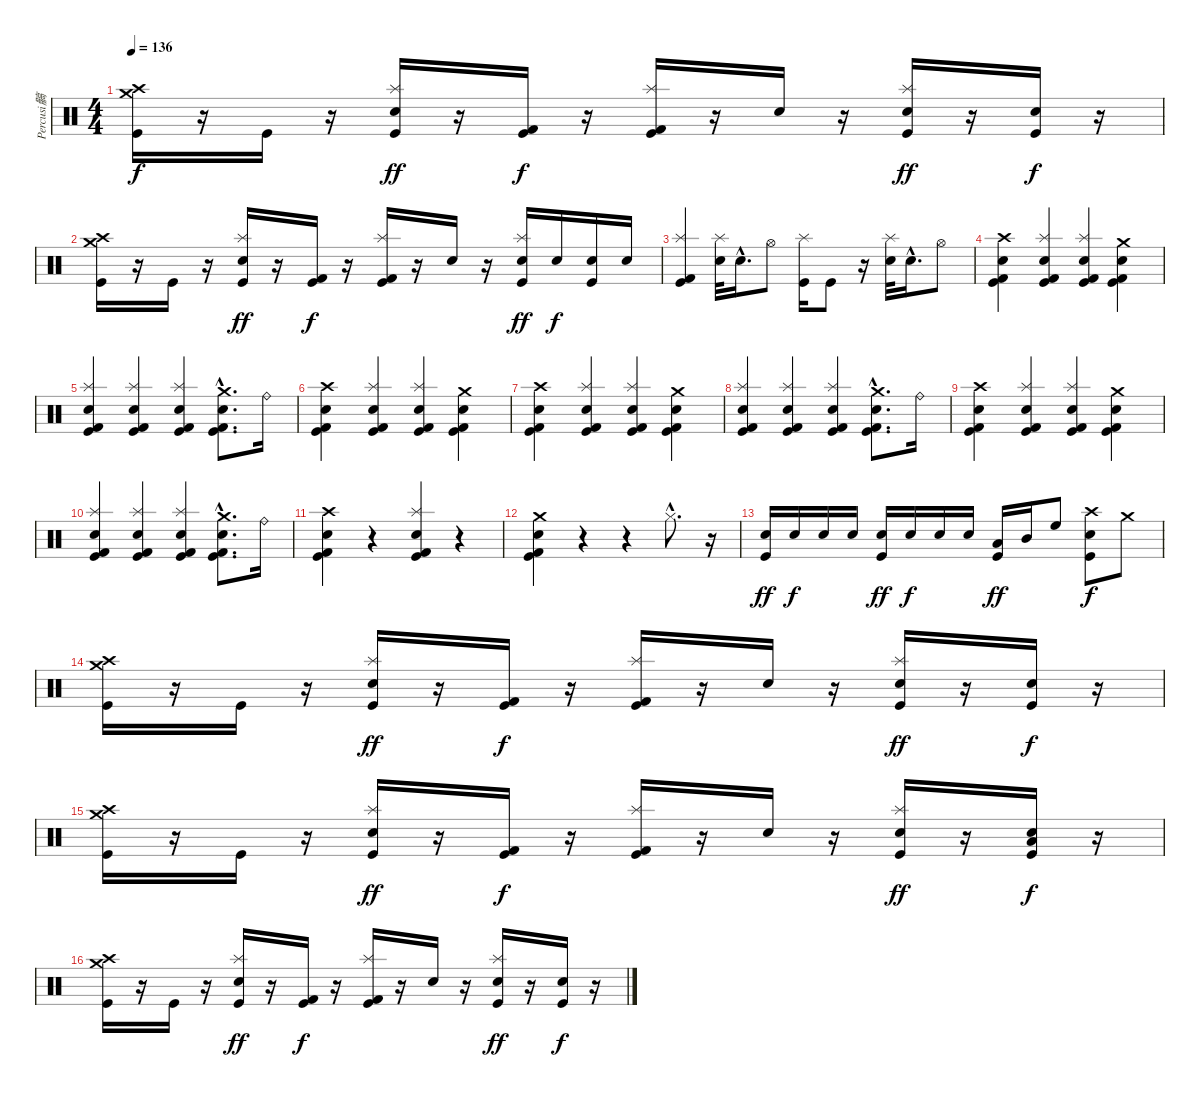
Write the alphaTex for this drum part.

\track ("Percusi髇" "Percusi髇") {instrument percussion}
\staff {score}
\articulation defaults
\ts (4 4)
\tempo 136
\clef neutral
\ks c
("Crash medium (hit)" "Crash high (hit)" "Kick (hit)").16{dy f} r.16 "Kick (hit)".16 r.16 ("Splash (hit)" "Electric Snare (hit)" "Kick (hit)").16{dy ff} r.16 ("Kick (hit) 2" "Kick (hit)").16{dy f} r.16 ("Splash (hit)" "Kick (hit) 2" "Kick (hit)").16 r.16 "Electric Snare (hit)".16 r.16 ("Splash (hit)" "Electric Snare (hit)" "Kick (hit)").16{dy ff} r.16 ("Electric Snare (hit)" "Kick (hit)").16{dy f} r.16 |
("Crash medium (hit)" "Crash high (hit)" "Kick (hit)").16 r.16 "Kick (hit)".16 r.16 ("Splash (hit)" "Electric Snare (hit)" "Kick (hit)").16{dy ff} r.16 ("Kick (hit) 2" "Kick (hit)").16{dy f} r.16 ("Splash (hit)" "Kick (hit) 2" "Kick (hit)").16 r.16 "Electric Snare (hit)".16 r.16 ("Splash (hit)" "Electric Snare (hit)" "Kick (hit)").16{dy ff} "Electric Snare (hit)".16{dy f} ("Electric Snare (hit)" "Kick (hit)").16 "Electric Snare (hit)".16 |
("Splash (hit)" "Kick (hit) 2" "Kick (hit)").4 ("Splash (hit)" "Electric Snare (hit)").32 "Electric Snare (hit)"{hac}.16{d} "Hi-Hat (open)".8 ("Splash (hit)" "Kick (hit)").16 "Kick (hit)".8 r.16 ("Splash (hit)" "Electric Snare (hit)").32 "Electric Snare (hit)"{hac}.16{d} "Hi-Hat (open)".8 |
("Electric Snare (hit)" "Crash high (hit)" "Kick (hit) 2" "Kick (hit)").4 ("Electric Snare (hit)" "Splash (hit)" "Kick (hit) 2" "Kick (hit)").4 ("Electric Snare (hit)" "Splash (hit)" "Kick (hit) 2" "Kick (hit)").4 ("Electric Snare (hit)" "Crash medium (hit)" "Kick (hit) 2" "Kick (hit)").4 |
("Electric Snare (hit)" "Splash (hit)" "Kick (hit) 2" "Kick (hit)").4 ("Electric Snare (hit)" "Splash (hit)" "Kick (hit) 2" "Kick (hit)").4 ("Electric Snare (hit)" "Splash (hit)" "Kick (hit) 2" "Kick (hit)").4 ("Electric Snare (hit)"{hac} "Crash medium (hit)"{hac} "Kick (hit) 2"{hac} "Kick (hit)"{hac}).8{d} "Ride (bell)".16 |
("Electric Snare (hit)" "Crash high (hit)" "Kick (hit) 2" "Kick (hit)").4 ("Electric Snare (hit)" "Splash (hit)" "Kick (hit) 2" "Kick (hit)").4 ("Electric Snare (hit)" "Splash (hit)" "Kick (hit) 2" "Kick (hit)").4 ("Electric Snare (hit)" "Crash medium (hit)" "Kick (hit) 2" "Kick (hit)").4 |
("Electric Snare (hit)" "Crash high (hit)" "Kick (hit) 2" "Kick (hit)").4 ("Electric Snare (hit)" "Splash (hit)" "Kick (hit) 2" "Kick (hit)").4 ("Electric Snare (hit)" "Splash (hit)" "Kick (hit) 2" "Kick (hit)").4 ("Electric Snare (hit)" "Crash medium (hit)" "Kick (hit) 2" "Kick (hit)").4 |
("Electric Snare (hit)" "Splash (hit)" "Kick (hit) 2" "Kick (hit)").4 ("Electric Snare (hit)" "Splash (hit)" "Kick (hit) 2" "Kick (hit)").4 ("Electric Snare (hit)" "Splash (hit)" "Kick (hit) 2" "Kick (hit)").4 ("Electric Snare (hit)"{hac} "Crash medium (hit)"{hac} "Kick (hit) 2"{hac} "Kick (hit)"{hac}).8{d} "Ride (bell)".16 |
("Electric Snare (hit)" "Crash high (hit)" "Kick (hit) 2" "Kick (hit)").4 ("Electric Snare (hit)" "Splash (hit)" "Kick (hit) 2" "Kick (hit)").4 ("Electric Snare (hit)" "Splash (hit)" "Kick (hit) 2" "Kick (hit)").4 ("Electric Snare (hit)" "Crash medium (hit)" "Kick (hit) 2" "Kick (hit)").4 |
("Electric Snare (hit)" "Splash (hit)" "Kick (hit) 2" "Kick (hit)").4 ("Electric Snare (hit)" "Splash (hit)" "Kick (hit) 2" "Kick (hit)").4 ("Electric Snare (hit)" "Splash (hit)" "Kick (hit) 2" "Kick (hit)").4 ("Electric Snare (hit)"{hac} "Crash medium (hit)"{hac} "Kick (hit) 2"{hac} "Kick (hit)"{hac}).8{d} "Ride (bell)".16 |
("Electric Snare (hit)" "Crash high (hit)" "Kick (hit) 2" "Kick (hit)").4 r.4 ("Electric Snare (hit)" "Splash (hit)" "Kick (hit) 2" "Kick (hit)").4 r.4 |
("Electric Snare (hit)" "Crash medium (hit)" "Kick (hit) 2" "Kick (hit)").4 r.4 r.4 "Hi-Hat (closed)"{hac}.8{d} r.16 |
("Electric Snare (hit)" "Kick (hit)").16{dy ff} "Electric Snare (hit)".16{dy f} "Electric Snare (hit)".16 "Electric Snare (hit)".16 ("Electric Snare (hit)" "Kick (hit)").16{dy ff} "Electric Snare (hit)".16{dy f} "Electric Snare (hit)".16 "Electric Snare (hit)".16 ("Low Tom (hit)" "Kick (hit)").16{dy ff} "Mid Tom (hit)".16 "High Floor Tom (hit)".8 ("Crash high (hit)" "Electric Snare (hit)" "Kick (hit)").8{dy f} "Crash medium (hit)".8 |
("Crash medium (hit)" "Crash high (hit)" "Kick (hit)").16 r.16 "Kick (hit)".16 r.16 ("Splash (hit)" "Electric Snare (hit)" "Kick (hit)").16{dy ff} r.16 ("Kick (hit) 2" "Kick (hit)").16{dy f} r.16 ("Splash (hit)" "Kick (hit) 2" "Kick (hit)").16 r.16 "Electric Snare (hit)".16 r.16 ("Splash (hit)" "Electric Snare (hit)" "Kick (hit)").16{dy ff} r.16 ("Electric Snare (hit)" "Kick (hit)").16{dy f} r.16 |
("Crash medium (hit)" "Crash high (hit)" "Kick (hit)").16 r.16 "Kick (hit)".16 r.16 ("Splash (hit)" "Electric Snare (hit)" "Kick (hit)").16{dy ff} r.16 ("Kick (hit) 2" "Kick (hit)").16{dy f} r.16 ("Splash (hit)" "Kick (hit) 2" "Kick (hit)").16 r.16 "Electric Snare (hit)".16 r.16 ("Splash (hit)" "Electric Snare (hit)" "Kick (hit)").16{dy ff} r.16 ("Low Tom (hit)" "Electric Snare (hit)" "Kick (hit)").16{dy f} r.16 |
("Crash medium (hit)" "Crash high (hit)" "Kick (hit)").16 r.16 "Kick (hit)".16 r.16 ("Splash (hit)" "Electric Snare (hit)" "Kick (hit)").16{dy ff} r.16 ("Kick (hit) 2" "Kick (hit)").16{dy f} r.16 ("Splash (hit)" "Kick (hit) 2" "Kick (hit)").16 r.16 "Electric Snare (hit)".16 r.16 ("Splash (hit)" "Electric Snare (hit)" "Kick (hit)").16{dy ff} r.16 ("Electric Snare (hit)" "Kick (hit)").16{dy f} r.16
